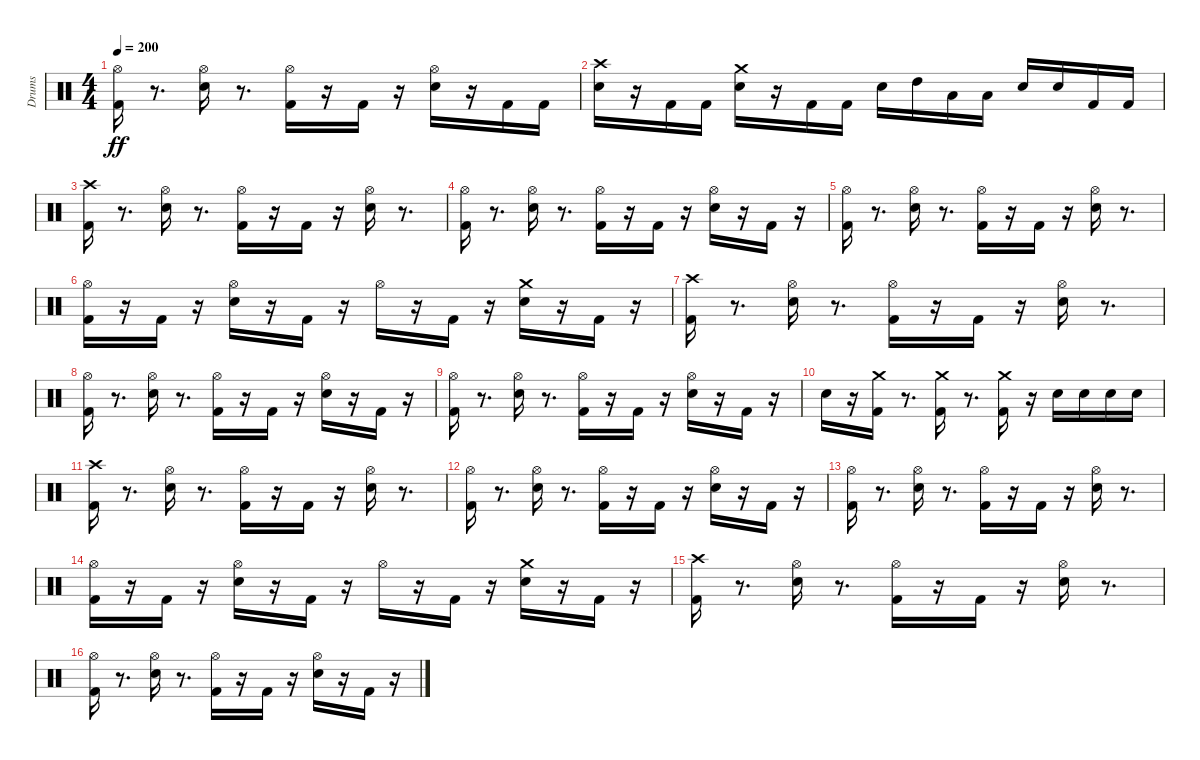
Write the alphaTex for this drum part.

\track ("Drums" "Drums") {instrument percussion}
\staff {score}
\articulation defaults
\ts (4 4)
\tempo 200
\clef neutral
\ks c
("Kick (hit) 2" "Hi-Hat (open)").16{dy ff} r.8{d} ("Snare (hit) 2" "Hi-Hat (open)").16 r.8{d} ("Kick (hit) 2" "Hi-Hat (open)").16 r.16 "Kick (hit) 2".16 r.16 ("Snare (hit) 2" "Hi-Hat (open)").16 r.16 "Kick (hit) 2".16 "Kick (hit) 2".16 |
("Snare (hit) 2" "Crash high (hit)").16 r.16 "Kick (hit) 2".16 "Kick (hit) 2".16 ("Snare (hit) 2" "Crash medium (hit)").16 r.16 "Kick (hit) 2".16 "Kick (hit) 2".16 "Snare (hit) 2".16 "High Tom (hit)".16 "Low Tom (hit)".16 "Low Tom (hit)".16 "Snare (hit) 2".16 "Snare (hit) 2".16 "Kick (hit) 2".16 "Kick (hit) 2".16 |
("Kick (hit) 2" "Crash high (hit)").16 r.8{d} ("Snare (hit) 2" "Hi-Hat (open)").16 r.8{d} ("Kick (hit) 2" "Hi-Hat (open)").16 r.16 "Kick (hit) 2".16 r.16 ("Snare (hit) 2" "Hi-Hat (open)").16 r.8{d} |
("Kick (hit) 2" "Hi-Hat (open)").16 r.8{d} ("Snare (hit) 2" "Hi-Hat (open)").16 r.8{d} ("Kick (hit) 2" "Hi-Hat (open)").16 r.16 "Kick (hit) 2".16 r.16 ("Snare (hit) 2" "Hi-Hat (open)").16 r.16 "Kick (hit) 2".16 r.16 |
("Kick (hit) 2" "Hi-Hat (open)").16 r.8{d} ("Snare (hit) 2" "Hi-Hat (open)").16 r.8{d} ("Kick (hit) 2" "Hi-Hat (open)").16 r.16 "Kick (hit) 2".16 r.16 ("Snare (hit) 2" "Hi-Hat (open)").16 r.8{d} |
("Kick (hit) 2" "Hi-Hat (open)").16 r.16 "Kick (hit) 2".16 r.16 ("Snare (hit) 2" "Hi-Hat (open)").16 r.16 "Kick (hit) 2".16 r.16 "Hi-Hat (open)".16 r.16 "Kick (hit) 2".16 r.16 ("Snare (hit) 2" "Crash medium (hit)").16 r.16 "Kick (hit) 2".16 r.16 |
("Kick (hit) 2" "Crash high (hit)").16 r.8{d} ("Snare (hit) 2" "Hi-Hat (open)").16 r.8{d} ("Kick (hit) 2" "Hi-Hat (open)").16 r.16 "Kick (hit) 2".16 r.16 ("Snare (hit) 2" "Hi-Hat (open)").16 r.8{d} |
("Kick (hit) 2" "Hi-Hat (open)").16 r.8{d} ("Snare (hit) 2" "Hi-Hat (open)").16 r.8{d} ("Kick (hit) 2" "Hi-Hat (open)").16 r.16 "Kick (hit) 2".16 r.16 ("Snare (hit) 2" "Hi-Hat (open)").16 r.16 "Kick (hit) 2".16 r.16 |
("Kick (hit) 2" "Hi-Hat (open)").16 r.8{d} ("Snare (hit) 2" "Hi-Hat (open)").16 r.8{d} ("Kick (hit) 2" "Hi-Hat (open)").16 r.16 "Kick (hit) 2".16 r.16 ("Snare (hit) 2" "Hi-Hat (open)").16 r.16 "Kick (hit) 2".16 r.16 |
"Snare (hit) 2".16 r.16 ("Kick (hit) 2" "Crash medium (hit)").16 r.8{d} ("Kick (hit) 2" "Crash medium (hit)").16 r.8{d} ("Kick (hit) 2" "Crash medium (hit)").16 r.16 "Snare (hit) 2".16 "Snare (hit) 2".16 "Snare (hit) 2".16 "Snare (hit) 2".16 |
("Kick (hit) 2" "Crash high (hit)").16 r.8{d} ("Snare (hit) 2" "Hi-Hat (open)").16 r.8{d} ("Kick (hit) 2" "Hi-Hat (open)").16 r.16 "Kick (hit) 2".16 r.16 ("Snare (hit) 2" "Hi-Hat (open)").16 r.8{d} |
("Kick (hit) 2" "Hi-Hat (open)").16 r.8{d} ("Snare (hit) 2" "Hi-Hat (open)").16 r.8{d} ("Kick (hit) 2" "Hi-Hat (open)").16 r.16 "Kick (hit) 2".16 r.16 ("Snare (hit) 2" "Hi-Hat (open)").16 r.16 "Kick (hit) 2".16 r.16 |
("Kick (hit) 2" "Hi-Hat (open)").16 r.8{d} ("Snare (hit) 2" "Hi-Hat (open)").16 r.8{d} ("Kick (hit) 2" "Hi-Hat (open)").16 r.16 "Kick (hit) 2".16 r.16 ("Snare (hit) 2" "Hi-Hat (open)").16 r.8{d} |
("Kick (hit) 2" "Hi-Hat (open)").16 r.16 "Kick (hit) 2".16 r.16 ("Snare (hit) 2" "Hi-Hat (open)").16 r.16 "Kick (hit) 2".16 r.16 "Hi-Hat (open)".16 r.16 "Kick (hit) 2".16 r.16 ("Snare (hit) 2" "Crash medium (hit)").16 r.16 "Kick (hit) 2".16 r.16 |
("Kick (hit) 2" "Crash high (hit)").16 r.8{d} ("Snare (hit) 2" "Hi-Hat (open)").16 r.8{d} ("Kick (hit) 2" "Hi-Hat (open)").16 r.16 "Kick (hit) 2".16 r.16 ("Snare (hit) 2" "Hi-Hat (open)").16 r.8{d} |
("Kick (hit) 2" "Hi-Hat (open)").16 r.8{d} ("Snare (hit) 2" "Hi-Hat (open)").16 r.8{d} ("Kick (hit) 2" "Hi-Hat (open)").16 r.16 "Kick (hit) 2".16 r.16 ("Snare (hit) 2" "Hi-Hat (open)").16 r.16 "Kick (hit) 2".16 r.16
